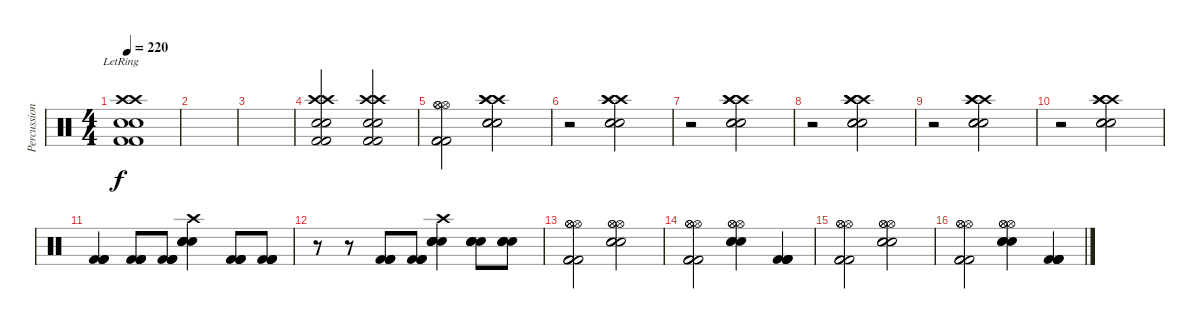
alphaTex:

\track ("Percussion" "Percussion") {instrument percussion}
\staff {score}
\articulation defaults
\ts (4 4)
\tempo 220
\clef neutral
\ks c
("Snare (hit) 2" "Snare (hit) 2" "Crash high (hit)" "Crash high (hit)"{lr} "Kick (hit) 2" "Kick (hit) 2").1{dy f} |
|
|
("Crash high (hit)" "Crash high (hit)" "Kick (hit) 2" "Kick (hit) 2" "Snare (hit) 2" "Snare (hit) 2").2 ("Crash high (hit)" "Crash high (hit)" "Kick (hit) 2" "Kick (hit) 2" "Snare (hit) 2" "Snare (hit) 2").2 |
("Hi-Hat (open)" "Hi-Hat (open)" "Hi-Hat (open)" "Kick (hit) 2" "Kick (hit) 2" "Kick (hit) 2").2 ("Crash high (hit)" "Crash high (hit)" "Crash high (hit)" "Snare (hit) 2" "Snare (hit) 2" "Snare (hit) 2").2 |
r.2 ("Crash high (hit)" "Crash high (hit)" "Crash high (hit)" "Snare (hit) 2" "Snare (hit) 2" "Snare (hit) 2").2 |
r.2 ("Crash high (hit)" "Crash high (hit)" "Crash high (hit)" "Snare (hit) 2" "Snare (hit) 2" "Snare (hit) 2").2 |
r.2 ("Crash high (hit)" "Crash high (hit)" "Crash high (hit)" "Snare (hit) 2" "Snare (hit) 2" "Snare (hit) 2").2 |
r.2 ("Crash high (hit)" "Crash high (hit)" "Crash high (hit)" "Snare (hit) 2" "Snare (hit) 2" "Snare (hit) 2").2 |
r.2 ("Crash high (hit)" "Crash high (hit)" "Crash high (hit)" "Snare (hit) 2" "Snare (hit) 2" "Snare (hit) 2").2 |
("Kick (hit) 2" "Kick (hit) 2" "Kick (hit) 2" "Kick (hit) 2").4 ("Kick (hit) 2" "Kick (hit) 2" "Kick (hit) 2" "Kick (hit) 2").8 ("Kick (hit) 2" "Kick (hit) 2" "Kick (hit) 2" "Kick (hit) 2").8 ("Crash high (hit)" "Snare (hit) 2" "Snare (hit) 2" "Snare (hit) 2" "Snare (hit) 2").4 ("Kick (hit) 2" "Kick (hit) 2" "Kick (hit) 2" "Kick (hit) 2").8 ("Kick (hit) 2" "Kick (hit) 2" "Kick (hit) 2" "Kick (hit) 2").8 |
r.8 r.8 ("Kick (hit) 2" "Kick (hit) 2" "Kick (hit) 2" "Kick (hit) 2").8 ("Kick (hit) 2" "Kick (hit) 2" "Kick (hit) 2" "Kick (hit) 2").8 ("Crash high (hit)" "Snare (hit) 2" "Snare (hit) 2" "Snare (hit) 2" "Snare (hit) 2").4 ("Snare (hit) 2" "Snare (hit) 2" "Snare (hit) 2" "Snare (hit) 2").8 ("Snare (hit) 2" "Snare (hit) 2" "Snare (hit) 2" "Snare (hit) 2").8 |
("Hi-Hat (open)" "Hi-Hat (open)" "Hi-Hat (open)" "Kick (hit) 2" "Kick (hit) 2" "Kick (hit) 2").2 ("Hi-Hat (open)" "Hi-Hat (open)" "Hi-Hat (open)" "Snare (hit) 2" "Snare (hit) 2" "Snare (hit) 2").2 |
("Hi-Hat (open)" "Hi-Hat (open)" "Hi-Hat (open)" "Kick (hit) 2" "Kick (hit) 2" "Kick (hit) 2").2 ("Hi-Hat (open)" "Hi-Hat (open)" "Hi-Hat (open)" "Snare (hit) 2" "Snare (hit) 2" "Snare (hit) 2").4 ("Kick (hit) 2" "Kick (hit) 2" "Kick (hit) 2" "Kick (hit) 2" "Kick (hit) 2").4 |
("Hi-Hat (open)" "Hi-Hat (open)" "Hi-Hat (open)" "Kick (hit) 2" "Kick (hit) 2" "Kick (hit) 2").2 ("Hi-Hat (open)" "Hi-Hat (open)" "Hi-Hat (open)" "Snare (hit) 2" "Snare (hit) 2" "Snare (hit) 2").2 |
("Hi-Hat (open)" "Hi-Hat (open)" "Hi-Hat (open)" "Kick (hit) 2" "Kick (hit) 2" "Kick (hit) 2").2 ("Hi-Hat (open)" "Hi-Hat (open)" "Hi-Hat (open)" "Snare (hit) 2" "Snare (hit) 2" "Snare (hit) 2").4 ("Kick (hit) 2" "Kick (hit) 2" "Kick (hit) 2" "Kick (hit) 2" "Kick (hit) 2").4
